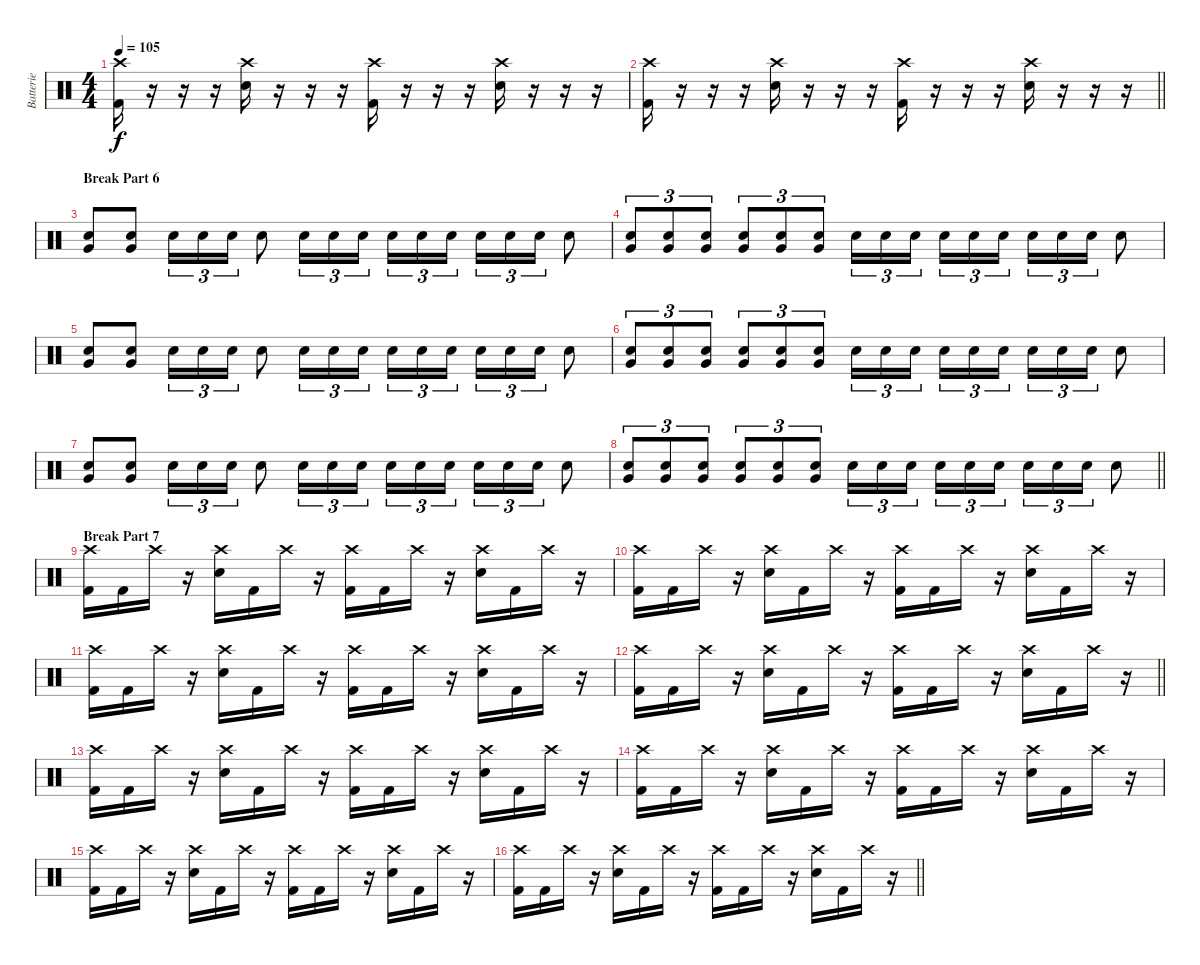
\track ("Batterie" "Batterie") {instrument percussion}
\staff {score}
\articulation defaults
\ts (4 4)
\tempo 105
\clef neutral
\ks c
("Kick (hit) 2" "Crash high (hit)").16{dy f} r.16 r.16 r.16 ("Electric Snare (hit)" "Crash high (hit)").16 r.16 r.16 r.16 ("Kick (hit) 2" "Crash high (hit)").16 r.16 r.16 r.16 ("Electric Snare (hit)" "Crash high (hit)").16 r.16 r.16 r.16 |
\barLineRight lightlight
("Kick (hit) 2" "Crash high (hit)").16 r.16 r.16 r.16 ("Electric Snare (hit)" "Crash high (hit)").16 r.16 r.16 r.16 ("Kick (hit) 2" "Crash high (hit)").16 r.16 r.16 r.16 ("Electric Snare (hit)" "Crash high (hit)").16 r.16 r.16 r.16 |
\section ("" "Break Part 6")
("Electric Snare (hit)" "Very Low Tom (hit)").8 ("Electric Snare (hit)" "Very Low Tom (hit)").8 "Electric Snare (hit)".16{tu (3 2)} "Electric Snare (hit)".16{tu (3 2)} "Electric Snare (hit)".16{tu (3 2)} "Electric Snare (hit)".8 "Electric Snare (hit)".16{tu (3 2)} "Electric Snare (hit)".16{tu (3 2)} "Electric Snare (hit)".16{tu (3 2) beam splitsecondary} "Electric Snare (hit)".16{tu (3 2)} "Electric Snare (hit)".16{tu (3 2)} "Electric Snare (hit)".16{tu (3 2)} "Electric Snare (hit)".16{tu (3 2)} "Electric Snare (hit)".16{tu (3 2)} "Electric Snare (hit)".16{tu (3 2)} "Electric Snare (hit)".8 |
("Electric Snare (hit)" "Very Low Tom (hit)").8{tu (3 2)} ("Electric Snare (hit)" "Very Low Tom (hit)").8{tu (3 2)} ("Electric Snare (hit)" "Very Low Tom (hit)").8{tu (3 2)} ("Electric Snare (hit)" "Very Low Tom (hit)").8{tu (3 2)} ("Electric Snare (hit)" "Very Low Tom (hit)").8{tu (3 2)} ("Electric Snare (hit)" "Very Low Tom (hit)").8{tu (3 2)} "Electric Snare (hit)".16{tu (3 2)} "Electric Snare (hit)".16{tu (3 2)} "Electric Snare (hit)".16{tu (3 2) beam splitsecondary} "Electric Snare (hit)".16{tu (3 2)} "Electric Snare (hit)".16{tu (3 2)} "Electric Snare (hit)".16{tu (3 2)} "Electric Snare (hit)".16{tu (3 2)} "Electric Snare (hit)".16{tu (3 2)} "Electric Snare (hit)".16{tu (3 2)} "Electric Snare (hit)".8 |
("Electric Snare (hit)" "Very Low Tom (hit)").8 ("Electric Snare (hit)" "Very Low Tom (hit)").8 "Electric Snare (hit)".16{tu (3 2)} "Electric Snare (hit)".16{tu (3 2)} "Electric Snare (hit)".16{tu (3 2)} "Electric Snare (hit)".8 "Electric Snare (hit)".16{tu (3 2)} "Electric Snare (hit)".16{tu (3 2)} "Electric Snare (hit)".16{tu (3 2) beam splitsecondary} "Electric Snare (hit)".16{tu (3 2)} "Electric Snare (hit)".16{tu (3 2)} "Electric Snare (hit)".16{tu (3 2)} "Electric Snare (hit)".16{tu (3 2)} "Electric Snare (hit)".16{tu (3 2)} "Electric Snare (hit)".16{tu (3 2)} "Electric Snare (hit)".8 |
("Electric Snare (hit)" "Very Low Tom (hit)").8{tu (3 2)} ("Electric Snare (hit)" "Very Low Tom (hit)").8{tu (3 2)} ("Electric Snare (hit)" "Very Low Tom (hit)").8{tu (3 2)} ("Electric Snare (hit)" "Very Low Tom (hit)").8{tu (3 2)} ("Electric Snare (hit)" "Very Low Tom (hit)").8{tu (3 2)} ("Electric Snare (hit)" "Very Low Tom (hit)").8{tu (3 2)} "Electric Snare (hit)".16{tu (3 2)} "Electric Snare (hit)".16{tu (3 2)} "Electric Snare (hit)".16{tu (3 2) beam splitsecondary} "Electric Snare (hit)".16{tu (3 2)} "Electric Snare (hit)".16{tu (3 2)} "Electric Snare (hit)".16{tu (3 2)} "Electric Snare (hit)".16{tu (3 2)} "Electric Snare (hit)".16{tu (3 2)} "Electric Snare (hit)".16{tu (3 2)} "Electric Snare (hit)".8 |
("Electric Snare (hit)" "Very Low Tom (hit)").8 ("Electric Snare (hit)" "Very Low Tom (hit)").8 "Electric Snare (hit)".16{tu (3 2)} "Electric Snare (hit)".16{tu (3 2)} "Electric Snare (hit)".16{tu (3 2)} "Electric Snare (hit)".8 "Electric Snare (hit)".16{tu (3 2)} "Electric Snare (hit)".16{tu (3 2)} "Electric Snare (hit)".16{tu (3 2) beam splitsecondary} "Electric Snare (hit)".16{tu (3 2)} "Electric Snare (hit)".16{tu (3 2)} "Electric Snare (hit)".16{tu (3 2)} "Electric Snare (hit)".16{tu (3 2)} "Electric Snare (hit)".16{tu (3 2)} "Electric Snare (hit)".16{tu (3 2)} "Electric Snare (hit)".8 |
\barLineRight lightlight
("Electric Snare (hit)" "Very Low Tom (hit)").8{tu (3 2)} ("Electric Snare (hit)" "Very Low Tom (hit)").8{tu (3 2)} ("Electric Snare (hit)" "Very Low Tom (hit)").8{tu (3 2)} ("Electric Snare (hit)" "Very Low Tom (hit)").8{tu (3 2)} ("Electric Snare (hit)" "Very Low Tom (hit)").8{tu (3 2)} ("Electric Snare (hit)" "Very Low Tom (hit)").8{tu (3 2)} "Electric Snare (hit)".16{tu (3 2)} "Electric Snare (hit)".16{tu (3 2)} "Electric Snare (hit)".16{tu (3 2) beam splitsecondary} "Electric Snare (hit)".16{tu (3 2)} "Electric Snare (hit)".16{tu (3 2)} "Electric Snare (hit)".16{tu (3 2)} "Electric Snare (hit)".16{tu (3 2)} "Electric Snare (hit)".16{tu (3 2)} "Electric Snare (hit)".16{tu (3 2)} "Electric Snare (hit)".8 |
\section ("" "Break Part 7")
("Kick (hit) 2" "Crash high (hit)").16 "Kick (hit) 2".16 "Crash high (hit)".16 r.16 ("Electric Snare (hit)" "Crash high (hit)").16 "Kick (hit) 2".16 "Crash high (hit)".16 r.16 ("Kick (hit) 2" "Crash high (hit)").16 "Kick (hit) 2".16 "Crash high (hit)".16 r.16 ("Electric Snare (hit)" "Crash high (hit)").16 "Kick (hit) 2".16 "Crash high (hit)".16 r.16 |
("Kick (hit) 2" "Crash high (hit)").16 "Kick (hit) 2".16 "Crash high (hit)".16 r.16 ("Electric Snare (hit)" "Crash high (hit)").16 "Kick (hit) 2".16 "Crash high (hit)".16 r.16 ("Kick (hit) 2" "Crash high (hit)").16 "Kick (hit) 2".16 "Crash high (hit)".16 r.16 ("Electric Snare (hit)" "Crash high (hit)").16 "Kick (hit) 2".16 "Crash high (hit)".16 r.16 |
("Kick (hit) 2" "Crash high (hit)").16 "Kick (hit) 2".16 "Crash high (hit)".16 r.16 ("Electric Snare (hit)" "Crash high (hit)").16 "Kick (hit) 2".16 "Crash high (hit)".16 r.16 ("Kick (hit) 2" "Crash high (hit)").16 "Kick (hit) 2".16 "Crash high (hit)".16 r.16 ("Electric Snare (hit)" "Crash high (hit)").16 "Kick (hit) 2".16 "Crash high (hit)".16 r.16 |
\barLineRight lightlight
("Kick (hit) 2" "Crash high (hit)").16 "Kick (hit) 2".16 "Crash high (hit)".16 r.16 ("Electric Snare (hit)" "Crash high (hit)").16 "Kick (hit) 2".16 "Crash high (hit)".16 r.16 ("Kick (hit) 2" "Crash high (hit)").16 "Kick (hit) 2".16 "Crash high (hit)".16 r.16 ("Electric Snare (hit)" "Crash high (hit)").16 "Kick (hit) 2".16 "Crash high (hit)".16 r.16 |
("Kick (hit) 2" "Crash high (hit)").16 "Kick (hit) 2".16 "Crash high (hit)".16 r.16 ("Electric Snare (hit)" "Crash high (hit)").16 "Kick (hit) 2".16 "Crash high (hit)".16 r.16 ("Kick (hit) 2" "Crash high (hit)").16 "Kick (hit) 2".16 "Crash high (hit)".16 r.16 ("Electric Snare (hit)" "Crash high (hit)").16 "Kick (hit) 2".16 "Crash high (hit)".16 r.16 |
("Kick (hit) 2" "Crash high (hit)").16 "Kick (hit) 2".16 "Crash high (hit)".16 r.16 ("Electric Snare (hit)" "Crash high (hit)").16 "Kick (hit) 2".16 "Crash high (hit)".16 r.16 ("Kick (hit) 2" "Crash high (hit)").16 "Kick (hit) 2".16 "Crash high (hit)".16 r.16 ("Electric Snare (hit)" "Crash high (hit)").16 "Kick (hit) 2".16 "Crash high (hit)".16 r.16 |
("Kick (hit) 2" "Crash high (hit)").16 "Kick (hit) 2".16 "Crash high (hit)".16 r.16 ("Electric Snare (hit)" "Crash high (hit)").16 "Kick (hit) 2".16 "Crash high (hit)".16 r.16 ("Kick (hit) 2" "Crash high (hit)").16 "Kick (hit) 2".16 "Crash high (hit)".16 r.16 ("Electric Snare (hit)" "Crash high (hit)").16 "Kick (hit) 2".16 "Crash high (hit)".16 r.16 |
\barLineRight lightlight
("Kick (hit) 2" "Crash high (hit)").16 "Kick (hit) 2".16 "Crash high (hit)".16 r.16 ("Electric Snare (hit)" "Crash high (hit)").16 "Kick (hit) 2".16 "Crash high (hit)".16 r.16 ("Kick (hit) 2" "Crash high (hit)").16 "Kick (hit) 2".16 "Crash high (hit)".16 r.16 ("Electric Snare (hit)" "Crash high (hit)").16 "Kick (hit) 2".16 "Crash high (hit)".16 r.16
